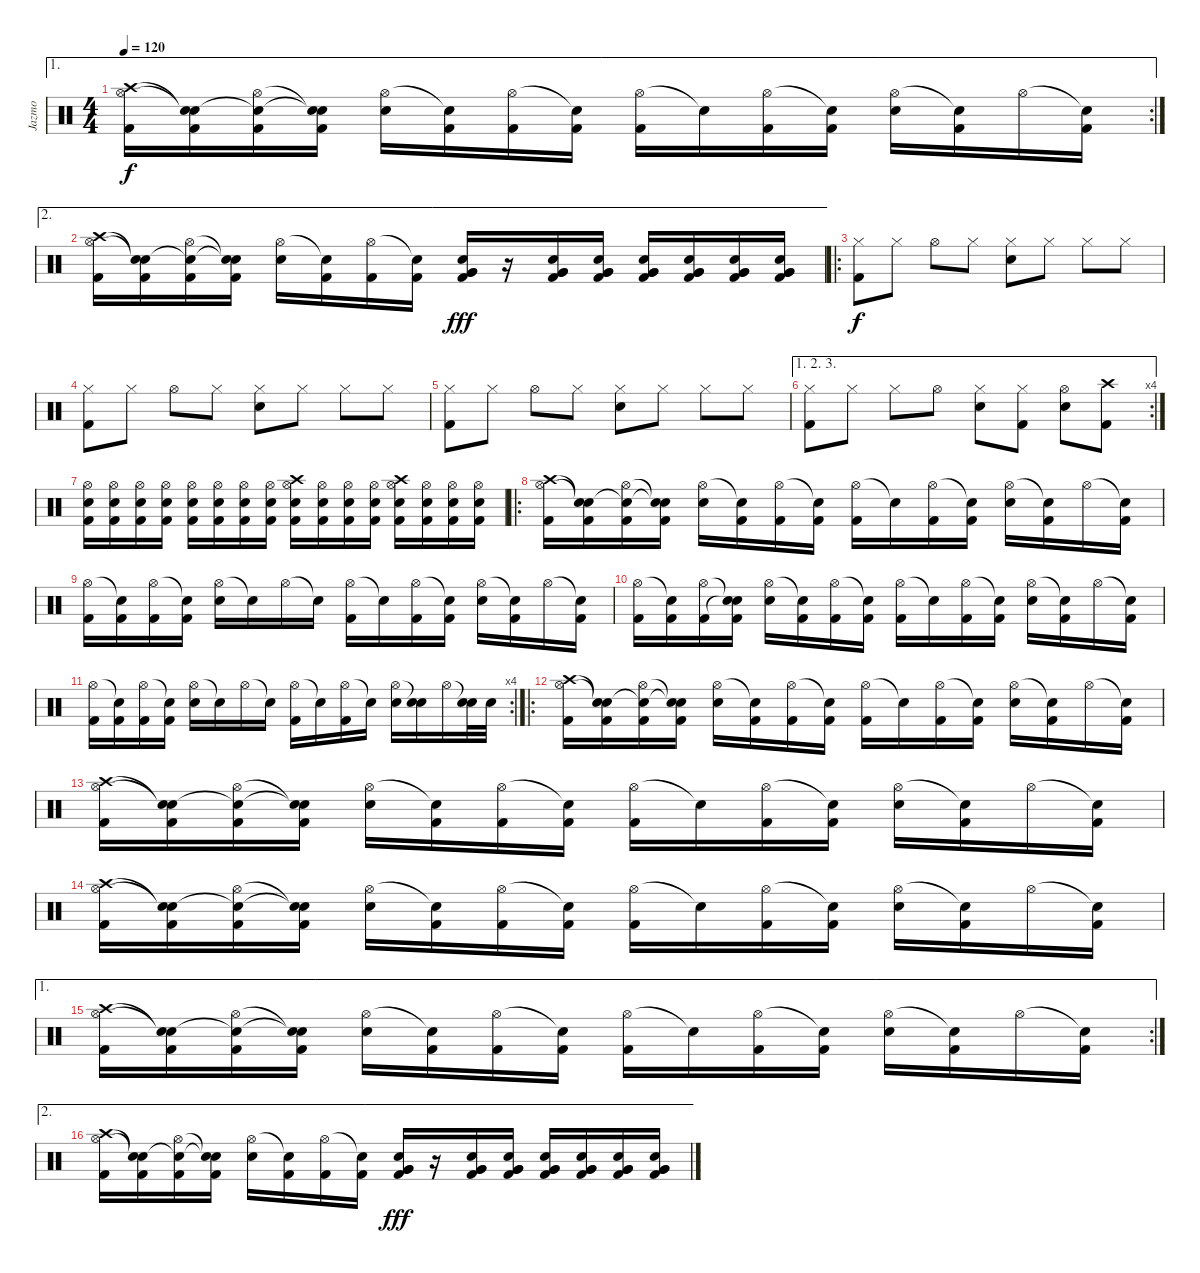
\track ("Jazmo" "Jazmo") {instrument percussion}
\staff {score}
\articulation defaults
\ae 1
\rc 2
\ts (4 4)
\tempo 120
\clef neutral
\ks c
("Crash high (hit)" "Hi-Hat (open)" "Kick (hit) 2").16{dy f} ("Snare (hit)"{t} "Snare (hit)"{t} "Kick (hit) 2").16 ("Snare (hit)"{t} "Hi-Hat (open)" "Kick (hit) 2").16 ("Snare (hit)"{t} "Snare (hit)"{t} "Kick (hit) 2").16 ("Hi-Hat (open)" "Electric Snare (hit)").16 ("Snare (hit)"{t} "Kick (hit) 2").16 ("Hi-Hat (open)" "Kick (hit) 2").16 ("Snare (hit)"{t} "Kick (hit) 2").16 ("Hi-Hat (open)" "Kick (hit) 2").16 "Snare (hit)"{t}.16 ("Hi-Hat (open)" "Kick (hit) 2").16 ("Snare (hit)"{t} "Kick (hit) 2").16 ("Hi-Hat (open)" "Electric Snare (hit)").16 ("Snare (hit)"{t} "Kick (hit) 2").16 "Hi-Hat (open)".16 ("Snare (hit)"{t} "Kick (hit) 2").16 |
\ae 2
("Crash high (hit)" "Hi-Hat (open)" "Kick (hit) 2").16 ("Snare (hit)"{t} "Snare (hit)"{t} "Kick (hit) 2").16 ("Snare (hit)"{t} "Hi-Hat (open)" "Kick (hit) 2").16 ("Snare (hit)"{t} "Snare (hit)"{t} "Kick (hit) 2").16 ("Hi-Hat (open)" "Electric Snare (hit)").16 ("Snare (hit)"{t} "Kick (hit) 2").16 ("Hi-Hat (open)" "Kick (hit) 2").16 ("Snare (hit)"{t} "Kick (hit) 2").16 ("Electric Snare (hit)" "Very Low Tom (hit)" "Very Low Tom (hit)" "Kick (hit) 2").16{dy fff} r.16 ("Electric Snare (hit)" "Very Low Tom (hit)" "Very Low Tom (hit)" "Kick (hit) 2").16 ("Electric Snare (hit)" "Very Low Tom (hit)" "Very Low Tom (hit)" "Kick (hit) 2").16 ("Electric Snare (hit)" "Very Low Tom (hit)" "Very Low Tom (hit)" "Kick (hit) 2").16 ("Electric Snare (hit)" "Very Low Tom (hit)" "Very Low Tom (hit)" "Kick (hit) 2").16 ("Electric Snare (hit)" "Very Low Tom (hit)" "Very Low Tom (hit)" "Kick (hit) 2").16 ("Electric Snare (hit)" "Very Low Tom (hit)" "Very Low Tom (hit)" "Kick (hit) 2").16 |
\ro
("Hi-Hat (closed)" "Kick (hit) 2").8{dy f} "Hi-Hat (closed)".8 "Hi-Hat (open)".8 "Hi-Hat (closed)".8 ("Hi-Hat (closed)" "Snare (hit) 2").8 "Hi-Hat (closed)".8 "Hi-Hat (closed)".8 "Hi-Hat (closed)".8 |
("Hi-Hat (closed)" "Kick (hit) 2").8 "Hi-Hat (closed)".8 "Hi-Hat (open)".8 "Hi-Hat (closed)".8 ("Hi-Hat (closed)" "Snare (hit) 2").8 "Hi-Hat (closed)".8 "Hi-Hat (closed)".8 "Hi-Hat (closed)".8 |
("Hi-Hat (closed)" "Kick (hit) 2").8 "Hi-Hat (closed)".8 "Hi-Hat (open)".8 "Hi-Hat (closed)".8 ("Hi-Hat (closed)" "Snare (hit) 2").8 "Hi-Hat (closed)".8 "Hi-Hat (closed)".8 "Hi-Hat (closed)".8 |
\ae (1 2 3)
\rc 4
("Hi-Hat (closed)" "Kick (hit) 2").8 "Hi-Hat (closed)".8 "Hi-Hat (closed)".8 "Hi-Hat (open)".8 ("Hi-Hat (closed)" "Snare (hit) 2").8 ("Hi-Hat (closed)" "Kick (hit) 2").8 ("Hi-Hat (open)" "Snare (hit) 2").8 ("Crash high (hit)" "Kick (hit) 2").8 |
("Hi-Hat (open)" "Kick (hit) 2" "Electric Snare (hit)").16 ("Hi-Hat (open)" "Kick (hit) 2" "Electric Snare (hit)").16 ("Hi-Hat (open)" "Kick (hit) 2" "Electric Snare (hit)").16 ("Hi-Hat (open)" "Kick (hit) 2" "Electric Snare (hit)").16 ("Hi-Hat (open)" "Kick (hit) 2" "Electric Snare (hit)").16 ("Hi-Hat (open)" "Kick (hit) 2" "Electric Snare (hit)").16 ("Hi-Hat (open)" "Kick (hit) 2" "Electric Snare (hit)").16 ("Hi-Hat (open)" "Kick (hit) 2" "Electric Snare (hit)").16 ("Crash high (hit)" "Hi-Hat (open)" "Kick (hit) 2" "Electric Snare (hit)").16 ("Hi-Hat (open)" "Kick (hit) 2" "Electric Snare (hit)").16 ("Hi-Hat (open)" "Kick (hit) 2" "Electric Snare (hit)").16 ("Hi-Hat (open)" "Kick (hit) 2" "Electric Snare (hit)").16 ("Crash high (hit)" "Hi-Hat (open)" "Kick (hit) 2" "Electric Snare (hit)").16 ("Hi-Hat (open)" "Kick (hit) 2" "Electric Snare (hit)").16 ("Hi-Hat (open)" "Kick (hit) 2" "Electric Snare (hit)").16 ("Hi-Hat (open)" "Kick (hit) 2" "Electric Snare (hit)").16 |
\ro
("Crash high (hit)" "Hi-Hat (open)" "Kick (hit) 2").16 ("Snare (hit)"{t} "Snare (hit)"{t} "Kick (hit) 2").16 ("Snare (hit)"{t} "Hi-Hat (open)" "Kick (hit) 2").16 ("Snare (hit)"{t} "Snare (hit)"{t} "Kick (hit) 2").16 ("Hi-Hat (open)" "Electric Snare (hit)").16 ("Snare (hit)"{t} "Kick (hit) 2").16 ("Hi-Hat (open)" "Kick (hit) 2").16 ("Snare (hit)"{t} "Kick (hit) 2").16 ("Hi-Hat (open)" "Kick (hit) 2").16 "Snare (hit)"{t}.16 ("Hi-Hat (open)" "Kick (hit) 2").16 ("Snare (hit)"{t} "Kick (hit) 2").16 ("Hi-Hat (open)" "Electric Snare (hit)").16 ("Snare (hit)"{t} "Kick (hit) 2").16 "Hi-Hat (open)".16 ("Snare (hit)"{t} "Kick (hit) 2").16 |
("Hi-Hat (open)" "Kick (hit) 2").16 ("Snare (hit)"{t} "Kick (hit) 2").16 ("Hi-Hat (open)" "Kick (hit) 2").16 ("Snare (hit)"{t} "Kick (hit) 2").16 ("Hi-Hat (open)" "Electric Snare (hit)").16 "Snare (hit)"{t}.16 "Hi-Hat (open)".16 "Snare (hit)"{t}.16 ("Hi-Hat (open)" "Kick (hit) 2").16 "Snare (hit)"{t}.16 ("Hi-Hat (open)" "Kick (hit) 2").16 ("Snare (hit)"{t} "Kick (hit) 2").16 ("Hi-Hat (open)" "Electric Snare (hit)").16 ("Snare (hit)"{t} "Kick (hit) 2").16 "Hi-Hat (open)".16 ("Snare (hit)"{t} "Kick (hit) 2").16 |
("Hi-Hat (open)" "Kick (hit) 2").16 ("Snare (hit)"{t} "Kick (hit) 2").16 ("Hi-Hat (open)" "Kick (hit) 2").16 ("Snare (hit)"{t} "Snare (hit)"{t} "Kick (hit) 2").16 ("Hi-Hat (open)" "Electric Snare (hit)").16 ("Snare (hit)"{t} "Kick (hit) 2").16 ("Hi-Hat (open)" "Kick (hit) 2").16 ("Snare (hit)"{t} "Kick (hit) 2").16 ("Hi-Hat (open)" "Kick (hit) 2").16 "Snare (hit)"{t}.16 ("Hi-Hat (open)" "Kick (hit) 2").16 ("Snare (hit)"{t} "Kick (hit) 2").16 ("Hi-Hat (open)" "Electric Snare (hit)").16 ("Snare (hit)"{t} "Kick (hit) 2").16 "Hi-Hat (open)".16 ("Snare (hit)"{t} "Kick (hit) 2").16 |
\rc 4
("Hi-Hat (open)" "Kick (hit) 2").16 ("Snare (hit)"{t} "Kick (hit) 2").16 ("Hi-Hat (open)" "Kick (hit) 2").16 ("Snare (hit)"{t} "Kick (hit) 2").16 ("Hi-Hat (open)" "Electric Snare (hit)").16 "Snare (hit)"{t}.16 "Hi-Hat (open)".16 "Snare (hit)"{t}.16 ("Hi-Hat (open)" "Kick (hit) 2").16 "Snare (hit)"{t}.16 ("Hi-Hat (open)" "Kick (hit) 2").16 "Snare (hit)"{t}.16 ("Hi-Hat (open)" "Electric Snare (hit)").16 ("Snare (hit)"{t} "Electric Snare (hit)").16 "Hi-Hat (open)".16 ("Snare (hit)"{t} "Electric Snare (hit)").32 "Electric Snare (hit)".32 |
\ro
("Crash high (hit)" "Hi-Hat (open)" "Kick (hit) 2").16 ("Snare (hit)"{t} "Snare (hit)"{t} "Kick (hit) 2").16 ("Snare (hit)"{t} "Hi-Hat (open)" "Kick (hit) 2").16 ("Snare (hit)"{t} "Snare (hit)"{t} "Kick (hit) 2").16 ("Hi-Hat (open)" "Electric Snare (hit)").16 ("Snare (hit)"{t} "Kick (hit) 2").16 ("Hi-Hat (open)" "Kick (hit) 2").16 ("Snare (hit)"{t} "Kick (hit) 2").16 ("Hi-Hat (open)" "Kick (hit) 2").16 "Snare (hit)"{t}.16 ("Hi-Hat (open)" "Kick (hit) 2").16 ("Snare (hit)"{t} "Kick (hit) 2").16 ("Hi-Hat (open)" "Electric Snare (hit)").16 ("Snare (hit)"{t} "Kick (hit) 2").16 "Hi-Hat (open)".16 ("Snare (hit)"{t} "Kick (hit) 2").16 |
("Crash high (hit)" "Hi-Hat (open)" "Kick (hit) 2").16 ("Snare (hit)"{t} "Snare (hit)"{t} "Kick (hit) 2").16 ("Snare (hit)"{t} "Hi-Hat (open)" "Kick (hit) 2").16 ("Snare (hit)"{t} "Snare (hit)"{t} "Kick (hit) 2").16 ("Hi-Hat (open)" "Electric Snare (hit)").16 ("Snare (hit)"{t} "Kick (hit) 2").16 ("Hi-Hat (open)" "Kick (hit) 2").16 ("Snare (hit)"{t} "Kick (hit) 2").16 ("Hi-Hat (open)" "Kick (hit) 2").16 "Snare (hit)"{t}.16 ("Hi-Hat (open)" "Kick (hit) 2").16 ("Snare (hit)"{t} "Kick (hit) 2").16 ("Hi-Hat (open)" "Electric Snare (hit)").16 ("Snare (hit)"{t} "Kick (hit) 2").16 "Hi-Hat (open)".16 ("Snare (hit)"{t} "Kick (hit) 2").16 |
("Crash high (hit)" "Hi-Hat (open)" "Kick (hit) 2").16 ("Snare (hit)"{t} "Snare (hit)"{t} "Kick (hit) 2").16 ("Snare (hit)"{t} "Hi-Hat (open)" "Kick (hit) 2").16 ("Snare (hit)"{t} "Snare (hit)"{t} "Kick (hit) 2").16 ("Hi-Hat (open)" "Electric Snare (hit)").16 ("Snare (hit)"{t} "Kick (hit) 2").16 ("Hi-Hat (open)" "Kick (hit) 2").16 ("Snare (hit)"{t} "Kick (hit) 2").16 ("Hi-Hat (open)" "Kick (hit) 2").16 "Snare (hit)"{t}.16 ("Hi-Hat (open)" "Kick (hit) 2").16 ("Snare (hit)"{t} "Kick (hit) 2").16 ("Hi-Hat (open)" "Electric Snare (hit)").16 ("Snare (hit)"{t} "Kick (hit) 2").16 "Hi-Hat (open)".16 ("Snare (hit)"{t} "Kick (hit) 2").16 |
\ae 1
\rc 2
("Crash high (hit)" "Hi-Hat (open)" "Kick (hit) 2").16 ("Snare (hit)"{t} "Snare (hit)"{t} "Kick (hit) 2").16 ("Snare (hit)"{t} "Hi-Hat (open)" "Kick (hit) 2").16 ("Snare (hit)"{t} "Snare (hit)"{t} "Kick (hit) 2").16 ("Hi-Hat (open)" "Electric Snare (hit)").16 ("Snare (hit)"{t} "Kick (hit) 2").16 ("Hi-Hat (open)" "Kick (hit) 2").16 ("Snare (hit)"{t} "Kick (hit) 2").16 ("Hi-Hat (open)" "Kick (hit) 2").16 "Snare (hit)"{t}.16 ("Hi-Hat (open)" "Kick (hit) 2").16 ("Snare (hit)"{t} "Kick (hit) 2").16 ("Hi-Hat (open)" "Electric Snare (hit)").16 ("Snare (hit)"{t} "Kick (hit) 2").16 "Hi-Hat (open)".16 ("Snare (hit)"{t} "Kick (hit) 2").16 |
\ae 2
("Crash high (hit)" "Hi-Hat (open)" "Kick (hit) 2").16 ("Snare (hit)"{t} "Snare (hit)"{t} "Kick (hit) 2").16 ("Snare (hit)"{t} "Hi-Hat (open)" "Kick (hit) 2").16 ("Snare (hit)"{t} "Snare (hit)"{t} "Kick (hit) 2").16 ("Hi-Hat (open)" "Electric Snare (hit)").16 ("Snare (hit)"{t} "Kick (hit) 2").16 ("Hi-Hat (open)" "Kick (hit) 2").16 ("Snare (hit)"{t} "Kick (hit) 2").16 ("Electric Snare (hit)" "Very Low Tom (hit)" "Very Low Tom (hit)" "Kick (hit) 2").16{dy fff} r.16 ("Electric Snare (hit)" "Very Low Tom (hit)" "Very Low Tom (hit)" "Kick (hit) 2").16 ("Electric Snare (hit)" "Very Low Tom (hit)" "Very Low Tom (hit)" "Kick (hit) 2").16 ("Electric Snare (hit)" "Very Low Tom (hit)" "Very Low Tom (hit)" "Kick (hit) 2").16 ("Electric Snare (hit)" "Very Low Tom (hit)" "Very Low Tom (hit)" "Kick (hit) 2").16 ("Electric Snare (hit)" "Very Low Tom (hit)" "Very Low Tom (hit)" "Kick (hit) 2").16 ("Electric Snare (hit)" "Very Low Tom (hit)" "Very Low Tom (hit)" "Kick (hit) 2").16
